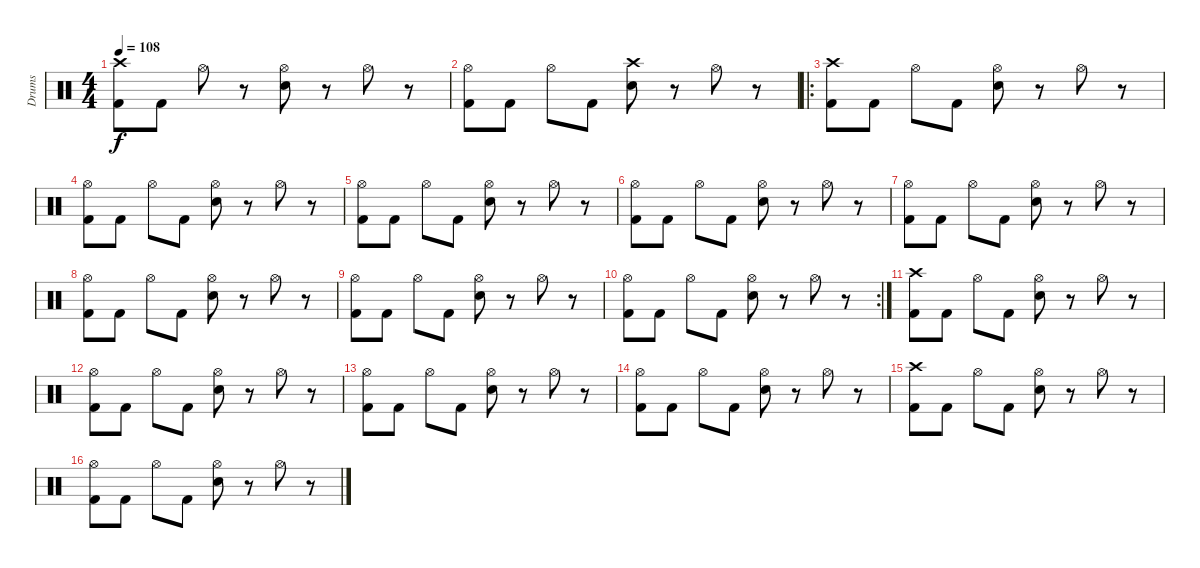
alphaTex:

\track ("Drums" "Drums") {instrument percussion}
\staff {score}
\articulation defaults
\ts (4 4)
\tempo 108
\clef neutral
\ks c
("Crash high (hit)" "Kick (hit) 2").8{dy f} "Kick (hit) 2".8 "Hi-Hat (open)".8 r.8 ("Hi-Hat (open)" "Snare (hit) 2").8 r.8 "Hi-Hat (open)".8 r.8 |
("Hi-Hat (open)" "Kick (hit) 2").8 "Kick (hit) 2".8 "Hi-Hat (open)".8 "Kick (hit) 2".8 ("Crash high (hit)" "Snare (hit) 2").8 r.8 "Hi-Hat (open)".8 r.8 |
\ro
("Crash high (hit)" "Kick (hit) 2").8 "Kick (hit) 2".8 "Hi-Hat (open)".8 "Kick (hit) 2".8 ("Hi-Hat (open)" "Snare (hit) 2").8 r.8 "Hi-Hat (open)".8 r.8 |
("Hi-Hat (open)" "Kick (hit) 2").8 "Kick (hit) 2".8 "Hi-Hat (open)".8 "Kick (hit) 2".8 ("Hi-Hat (open)" "Snare (hit) 2").8 r.8 "Hi-Hat (open)".8 r.8 |
("Hi-Hat (open)" "Kick (hit) 2").8 "Kick (hit) 2".8 "Hi-Hat (open)".8 "Kick (hit) 2".8 ("Hi-Hat (open)" "Snare (hit) 2").8 r.8 "Hi-Hat (open)".8 r.8 |
("Hi-Hat (open)" "Kick (hit) 2").8 "Kick (hit) 2".8 "Hi-Hat (open)".8 "Kick (hit) 2".8 ("Hi-Hat (open)" "Snare (hit) 2").8 r.8 "Hi-Hat (open)".8 r.8 |
("Hi-Hat (open)" "Kick (hit) 2").8 "Kick (hit) 2".8 "Hi-Hat (open)".8 "Kick (hit) 2".8 ("Hi-Hat (open)" "Snare (hit) 2").8 r.8 "Hi-Hat (open)".8 r.8 |
("Hi-Hat (open)" "Kick (hit) 2").8 "Kick (hit) 2".8 "Hi-Hat (open)".8 "Kick (hit) 2".8 ("Hi-Hat (open)" "Snare (hit) 2").8 r.8 "Hi-Hat (open)".8 r.8 |
("Hi-Hat (open)" "Kick (hit) 2").8 "Kick (hit) 2".8 "Hi-Hat (open)".8 "Kick (hit) 2".8 ("Hi-Hat (open)" "Snare (hit) 2").8 r.8 "Hi-Hat (open)".8 r.8 |
\rc 2
("Hi-Hat (open)" "Kick (hit) 2").8 "Kick (hit) 2".8 "Hi-Hat (open)".8 "Kick (hit) 2".8 ("Hi-Hat (open)" "Snare (hit) 2").8 r.8 "Hi-Hat (open)".8 r.8 |
("Crash high (hit)" "Kick (hit) 2").8 "Kick (hit) 2".8 "Hi-Hat (open)".8 "Kick (hit) 2".8 ("Hi-Hat (open)" "Snare (hit) 2").8 r.8 "Hi-Hat (open)".8 r.8 |
("Hi-Hat (open)" "Kick (hit) 2").8 "Kick (hit) 2".8 "Hi-Hat (open)".8 "Kick (hit) 2".8 ("Hi-Hat (open)" "Snare (hit) 2").8 r.8 "Hi-Hat (open)".8 r.8 |
("Hi-Hat (open)" "Kick (hit) 2").8 "Kick (hit) 2".8 "Hi-Hat (open)".8 "Kick (hit) 2".8 ("Hi-Hat (open)" "Snare (hit) 2").8 r.8 "Hi-Hat (open)".8 r.8 |
("Hi-Hat (open)" "Kick (hit) 2").8 "Kick (hit) 2".8 "Hi-Hat (open)".8 "Kick (hit) 2".8 ("Hi-Hat (open)" "Snare (hit) 2").8 r.8 "Hi-Hat (open)".8 r.8 |
("Crash high (hit)" "Kick (hit) 2").8 "Kick (hit) 2".8 "Hi-Hat (open)".8 "Kick (hit) 2".8 ("Hi-Hat (open)" "Snare (hit) 2").8 r.8 "Hi-Hat (open)".8 r.8 |
("Hi-Hat (open)" "Kick (hit) 2").8 "Kick (hit) 2".8 "Hi-Hat (open)".8 "Kick (hit) 2".8 ("Hi-Hat (open)" "Snare (hit) 2").8 r.8 "Hi-Hat (open)".8 r.8
